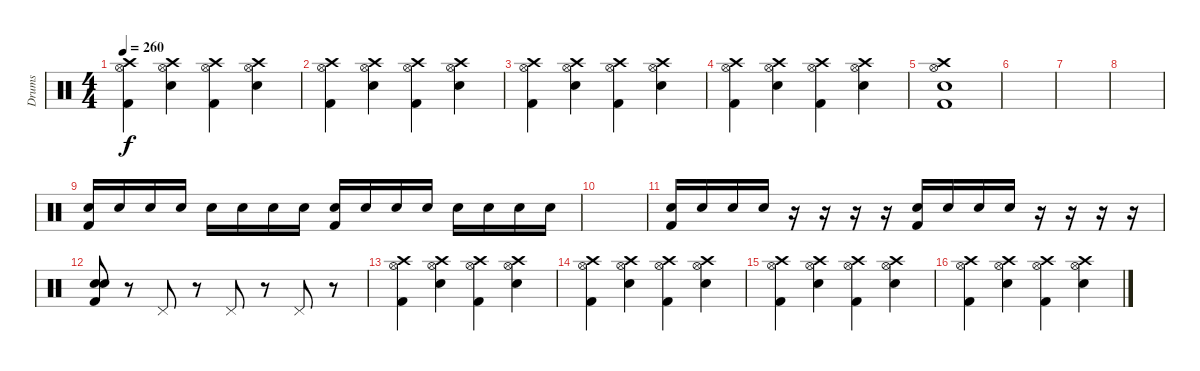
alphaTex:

\track ("Drums" "Drums") {instrument percussion}
\staff {score}
\articulation defaults
\ts (4 4)
\tempo 260
\clef neutral
\ks c
("Crash high (hit)" "Kick (hit) 2" "Hi-Hat (open)").4{dy f} ("Crash high (hit)" "Electric Snare (hit)" "Hi-Hat (open)").4 ("Crash high (hit)" "Kick (hit) 2" "Hi-Hat (open)").4 ("Crash high (hit)" "Electric Snare (hit)" "Hi-Hat (open)").4 |
("Crash high (hit)" "Kick (hit) 2" "Hi-Hat (open)").4 ("Crash high (hit)" "Electric Snare (hit)" "Hi-Hat (open)").4 ("Crash high (hit)" "Kick (hit) 2" "Hi-Hat (open)").4 ("Crash high (hit)" "Electric Snare (hit)" "Hi-Hat (open)").4 |
("Crash high (hit)" "Kick (hit) 2" "Hi-Hat (open)").4 ("Crash high (hit)" "Electric Snare (hit)" "Hi-Hat (open)").4 ("Crash high (hit)" "Kick (hit) 2" "Hi-Hat (open)").4 ("Crash high (hit)" "Electric Snare (hit)" "Hi-Hat (open)").4 |
("Crash high (hit)" "Kick (hit) 2" "Hi-Hat (open)").4 ("Crash high (hit)" "Electric Snare (hit)" "Hi-Hat (open)").4 ("Crash high (hit)" "Kick (hit) 2" "Hi-Hat (open)").4 ("Crash high (hit)" "Electric Snare (hit)" "Hi-Hat (open)").4 |
("Crash high (hit)" "Kick (hit) 2" "Electric Snare (hit)" "Hi-Hat (open)").1 |
|
|
|
("Electric Snare (hit)" "Kick (hit) 2").16 "Electric Snare (hit)".16 "Electric Snare (hit)".16 "Electric Snare (hit)".16 "Electric Snare (hit)".16 "Electric Snare (hit)".16 "Electric Snare (hit)".16 "Electric Snare (hit)".16 ("Electric Snare (hit)" "Kick (hit) 2").16 "Electric Snare (hit)".16 "Electric Snare (hit)".16 "Electric Snare (hit)".16 "Electric Snare (hit)".16 "Electric Snare (hit)".16 "Electric Snare (hit)".16 "Electric Snare (hit)".16 |
|
("Electric Snare (hit)" "Kick (hit) 2").16 "Electric Snare (hit)".16 "Electric Snare (hit)".16 "Electric Snare (hit)".16 r.16 r.16 r.16 r.16 ("Electric Snare (hit)" "Kick (hit) 2").16 "Electric Snare (hit)".16 "Electric Snare (hit)".16 "Electric Snare (hit)".16 r.16 r.16 r.16 r.16 |
("Electric Snare (hit)" "Kick (hit) 2" "Electric Snare (hit)").8 r.8 "Pedal Hi-Hat (hit)".8 r.8 "Pedal Hi-Hat (hit)".8 r.8 "Pedal Hi-Hat (hit)".8 r.8 |
("Crash high (hit)" "Kick (hit) 2" "Hi-Hat (open)").4 ("Crash high (hit)" "Electric Snare (hit)" "Hi-Hat (open)").4 ("Crash high (hit)" "Kick (hit) 2" "Hi-Hat (open)").4 ("Crash high (hit)" "Electric Snare (hit)" "Hi-Hat (open)").4 |
("Crash high (hit)" "Kick (hit) 2" "Hi-Hat (open)").4 ("Crash high (hit)" "Electric Snare (hit)" "Hi-Hat (open)").4 ("Crash high (hit)" "Kick (hit) 2" "Hi-Hat (open)").4 ("Crash high (hit)" "Electric Snare (hit)" "Hi-Hat (open)").4 |
("Crash high (hit)" "Kick (hit) 2" "Hi-Hat (open)").4 ("Crash high (hit)" "Electric Snare (hit)" "Hi-Hat (open)").4 ("Crash high (hit)" "Kick (hit) 2" "Hi-Hat (open)").4 ("Crash high (hit)" "Electric Snare (hit)" "Hi-Hat (open)").4 |
("Crash high (hit)" "Kick (hit) 2" "Hi-Hat (open)").4 ("Crash high (hit)" "Electric Snare (hit)" "Hi-Hat (open)").4 ("Crash high (hit)" "Kick (hit) 2" "Hi-Hat (open)").4 ("Crash high (hit)" "Electric Snare (hit)" "Hi-Hat (open)").4
